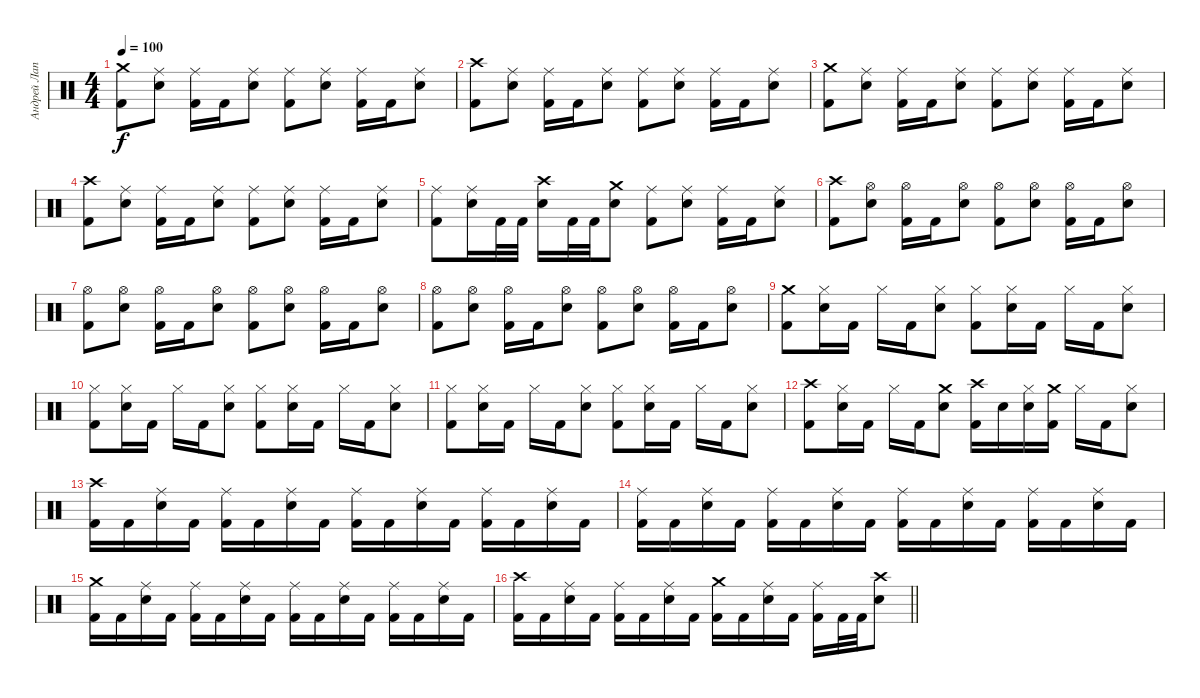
\track ("Андрей Лаптев" "Андрей Лап") {instrument percussion}
\staff {score}
\articulation defaults
\ts (4 4)
\tempo 100
\clef neutral
\ks c
("Crash medium (hit)" "Kick (hit) 2").8{dy f} ("Ride (middle)" "Snare (hit) 2").8 ("Ride (middle)" "Kick (hit) 2").16 "Kick (hit) 2".16 ("Ride (middle)" "Snare (hit) 2").8 ("Ride (middle)" "Kick (hit) 2").8 ("Ride (middle)" "Snare (hit) 2").8 ("Ride (middle)" "Kick (hit) 2").16 "Kick (hit) 2".16 ("Ride (middle)" "Snare (hit) 2").8 |
("Crash high (hit)" "Kick (hit) 2").8 ("Ride (middle)" "Snare (hit) 2").8 ("Ride (middle)" "Kick (hit) 2").16 "Kick (hit) 2".16 ("Ride (middle)" "Snare (hit) 2").8 ("Ride (middle)" "Kick (hit) 2").8 ("Ride (middle)" "Snare (hit) 2").8 ("Ride (middle)" "Kick (hit) 2").16 "Kick (hit) 2".16 ("Ride (middle)" "Snare (hit) 2").8 |
("Crash medium (hit)" "Kick (hit) 2").8 ("Ride (middle)" "Snare (hit) 2").8 ("Ride (middle)" "Kick (hit) 2").16 "Kick (hit) 2".16 ("Ride (middle)" "Snare (hit) 2").8 ("Ride (middle)" "Kick (hit) 2").8 ("Ride (middle)" "Snare (hit) 2").8 ("Ride (middle)" "Kick (hit) 2").16 "Kick (hit) 2".16 ("Ride (middle)" "Snare (hit) 2").8 |
("Crash high (hit)" "Kick (hit) 2").8 ("Ride (middle)" "Snare (hit) 2").8 ("Ride (middle)" "Kick (hit) 2").16 "Kick (hit) 2".16 ("Ride (middle)" "Snare (hit) 2").8 ("Ride (middle)" "Kick (hit) 2").8 ("Ride (middle)" "Snare (hit) 2").8 ("Ride (middle)" "Kick (hit) 2").16 "Kick (hit) 2".16 ("Ride (middle)" "Snare (hit) 2").8 |
("Ride (middle)" "Kick (hit) 2").8 ("Ride (middle)" "Snare (hit) 2").16 "Kick (hit) 2".32 "Kick (hit) 2".32 ("Crash high (hit)" "Snare (hit) 2").16 "Kick (hit) 2".32 "Kick (hit) 2".32 ("Crash medium (hit)" "Snare (hit) 2").8 ("Ride (middle)" "Kick (hit) 2").8 ("Ride (middle)" "Snare (hit) 2").8 ("Ride (middle)" "Kick (hit) 2").16 "Kick (hit) 2".16 ("Ride (middle)" "Snare (hit) 2").8 |
("Crash high (hit)" "Kick (hit) 2").8 ("Hi-Hat (open)" "Snare (hit) 2").8 ("Hi-Hat (open)" "Kick (hit) 2").16 "Kick (hit) 2".16 ("Hi-Hat (open)" "Snare (hit) 2").8 ("Hi-Hat (open)" "Kick (hit) 2").8 ("Hi-Hat (open)" "Snare (hit) 2").8 ("Hi-Hat (open)" "Kick (hit) 2").16 "Kick (hit) 2".16 ("Hi-Hat (open)" "Snare (hit) 2").8 |
("Hi-Hat (open)" "Kick (hit) 2").8 ("Hi-Hat (open)" "Snare (hit) 2").8 ("Hi-Hat (open)" "Kick (hit) 2").16 "Kick (hit) 2".16 ("Hi-Hat (open)" "Snare (hit) 2").8 ("Hi-Hat (open)" "Kick (hit) 2").8 ("Hi-Hat (open)" "Snare (hit) 2").8 ("Hi-Hat (open)" "Kick (hit) 2").16 "Kick (hit) 2".16 ("Hi-Hat (open)" "Snare (hit) 2").8 |
("Hi-Hat (open)" "Kick (hit) 2").8 ("Hi-Hat (open)" "Snare (hit) 2").8 ("Hi-Hat (open)" "Kick (hit) 2").16 "Kick (hit) 2".16 ("Hi-Hat (open)" "Snare (hit) 2").8 ("Hi-Hat (open)" "Kick (hit) 2").8 ("Hi-Hat (open)" "Snare (hit) 2").8 ("Hi-Hat (open)" "Kick (hit) 2").16 "Kick (hit) 2".16 ("Hi-Hat (open)" "Snare (hit) 2").8 |
("Crash medium (hit)" "Kick (hit) 2").8 ("Hi-Hat (closed)" "Snare (hit) 2").16 "Kick (hit) 2".16 "Hi-Hat (closed)".16 "Kick (hit) 2".16 ("Hi-Hat (closed)" "Snare (hit) 2").8 ("Hi-Hat (closed)" "Kick (hit) 2").8 ("Hi-Hat (closed)" "Snare (hit) 2").16 "Kick (hit) 2".16 "Hi-Hat (closed)".16 "Kick (hit) 2".16 ("Hi-Hat (closed)" "Snare (hit) 2").8 |
("Hi-Hat (closed)" "Kick (hit) 2").8 ("Hi-Hat (closed)" "Snare (hit) 2").16 "Kick (hit) 2".16 "Hi-Hat (closed)".16 "Kick (hit) 2".16 ("Hi-Hat (closed)" "Snare (hit) 2").8 ("Hi-Hat (closed)" "Kick (hit) 2").8 ("Hi-Hat (closed)" "Snare (hit) 2").16 "Kick (hit) 2".16 "Hi-Hat (closed)".16 "Kick (hit) 2".16 ("Hi-Hat (closed)" "Snare (hit) 2").8 |
("Hi-Hat (closed)" "Kick (hit) 2").8 ("Hi-Hat (closed)" "Snare (hit) 2").16 "Kick (hit) 2".16 "Hi-Hat (closed)".16 "Kick (hit) 2".16 ("Hi-Hat (closed)" "Snare (hit) 2").8 ("Hi-Hat (closed)" "Kick (hit) 2").8 ("Hi-Hat (closed)" "Snare (hit) 2").16 "Kick (hit) 2".16 "Hi-Hat (closed)".16 "Kick (hit) 2".16 ("Hi-Hat (closed)" "Snare (hit) 2").8 |
("Crash high (hit)" "Kick (hit) 2").8 ("Hi-Hat (closed)" "Snare (hit) 2").16 "Kick (hit) 2".16 "Hi-Hat (closed)".16 "Kick (hit) 2".16 ("Crash medium (hit)" "Snare (hit) 2").8 ("Crash high (hit)" "Kick (hit) 2").16 "Snare (hit) 2".16 ("Hi-Hat (closed)" "Snare (hit) 2").16 ("Crash medium (hit)" "Kick (hit) 2").16 "Hi-Hat (closed)".16 "Kick (hit) 2".16 ("Hi-Hat (closed)" "Snare (hit) 2").8 |
("Crash high (hit)" "Kick (hit) 2").16 "Kick (hit) 2".16 ("Ride (middle)" "Snare (hit) 2").16 "Kick (hit) 2".16 ("Ride (middle)" "Kick (hit) 2").16 "Kick (hit) 2".16 ("Ride (middle)" "Snare (hit) 2").16 "Kick (hit) 2".16 ("Ride (middle)" "Kick (hit) 2").16 "Kick (hit) 2".16 ("Ride (middle)" "Snare (hit) 2").16 "Kick (hit) 2".16 ("Ride (middle)" "Kick (hit) 2").16 "Kick (hit) 2".16 ("Ride (middle)" "Snare (hit) 2").16 "Kick (hit) 2".16 |
("Ride (middle)" "Kick (hit) 2").16 "Kick (hit) 2".16 ("Ride (middle)" "Snare (hit) 2").16 "Kick (hit) 2".16 ("Ride (middle)" "Kick (hit) 2").16 "Kick (hit) 2".16 ("Ride (middle)" "Snare (hit) 2").16 "Kick (hit) 2".16 ("Ride (middle)" "Kick (hit) 2").16 "Kick (hit) 2".16 ("Ride (middle)" "Snare (hit) 2").16 "Kick (hit) 2".16 ("Ride (middle)" "Kick (hit) 2").16 "Kick (hit) 2".16 ("Ride (middle)" "Snare (hit) 2").16 "Kick (hit) 2".16 |
("Crash medium (hit)" "Kick (hit) 2").16 "Kick (hit) 2".16 ("Ride (middle)" "Snare (hit) 2").16 "Kick (hit) 2".16 ("Ride (middle)" "Kick (hit) 2").16 "Kick (hit) 2".16 ("Ride (middle)" "Snare (hit) 2").16 "Kick (hit) 2".16 ("Ride (middle)" "Kick (hit) 2").16 "Kick (hit) 2".16 ("Ride (middle)" "Snare (hit) 2").16 "Kick (hit) 2".16 ("Ride (middle)" "Kick (hit) 2").16 "Kick (hit) 2".16 ("Ride (middle)" "Snare (hit) 2").16 "Kick (hit) 2".16 |
\barLineRight lightlight
("Crash high (hit)" "Kick (hit) 2").16 "Kick (hit) 2".16 ("Ride (middle)" "Snare (hit) 2").16 "Kick (hit) 2".16 ("Ride (middle)" "Kick (hit) 2").16 "Kick (hit) 2".16 ("Ride (middle)" "Snare (hit) 2").16 "Kick (hit) 2".16 ("Crash medium (hit)" "Kick (hit) 2").16 "Kick (hit) 2".16 ("Ride (middle)" "Snare (hit) 2").16 "Kick (hit) 2".16 ("Ride (middle)" "Kick (hit) 2").16 "Kick (hit) 2".32 "Kick (hit) 2".32 ("Crash high (hit)" "Snare (hit) 2").8
